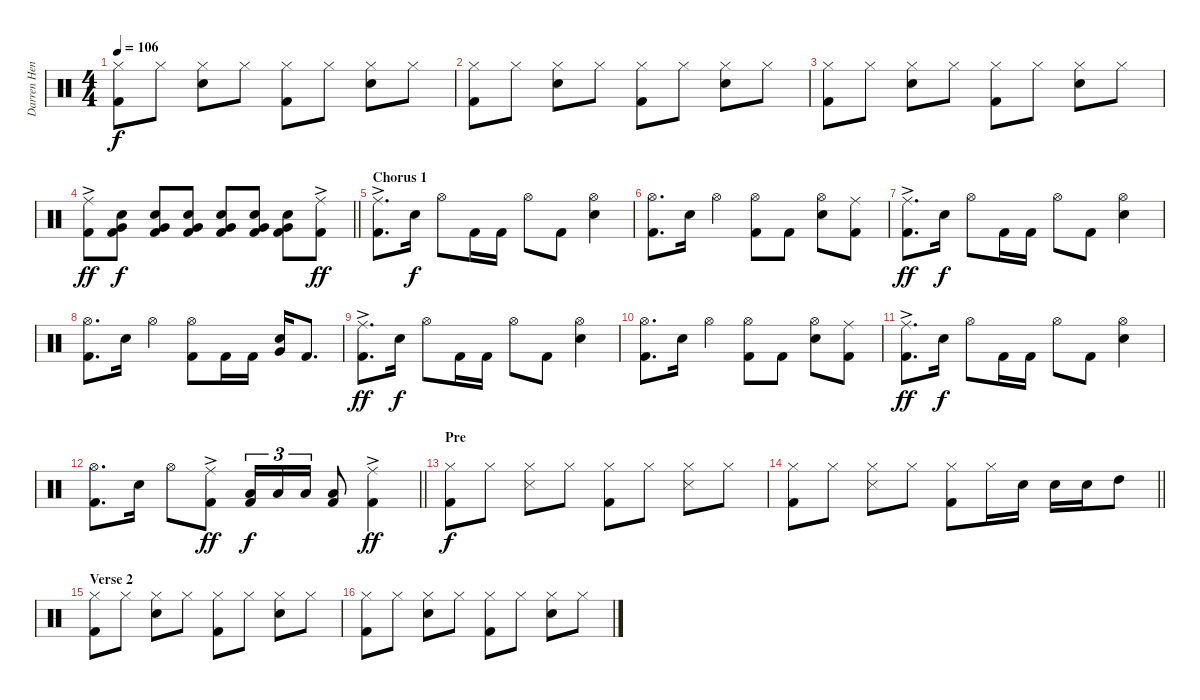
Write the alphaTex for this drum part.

\track ("Darren Henley [Drums]" "Darren Hen") {instrument percussion}
\staff {score}
\articulation defaults
\ts (4 4)
\tempo 106
\clef neutral
\ks c
("Hi-Hat (closed)" "Kick (hit) 2").8{dy f} "Hi-Hat (closed)".8 ("Hi-Hat (closed)" "Snare (hit) 2").8 "Hi-Hat (closed)".8 ("Hi-Hat (closed)" "Kick (hit) 2").8 "Hi-Hat (closed)".8 ("Hi-Hat (closed)" "Snare (hit) 2").8 "Hi-Hat (closed)".8 |
("Hi-Hat (closed)" "Kick (hit) 2").8 "Hi-Hat (closed)".8 ("Hi-Hat (closed)" "Snare (hit) 2").8 "Hi-Hat (closed)".8 ("Hi-Hat (closed)" "Kick (hit) 2").8 "Hi-Hat (closed)".8 ("Hi-Hat (closed)" "Snare (hit) 2").8 "Hi-Hat (closed)".8 |
("Hi-Hat (closed)" "Kick (hit) 2").8 "Hi-Hat (closed)".8 ("Hi-Hat (closed)" "Snare (hit) 2").8 "Hi-Hat (closed)".8 ("Hi-Hat (closed)" "Kick (hit) 2").8 "Hi-Hat (closed)".8 ("Hi-Hat (closed)" "Snare (hit) 2").8 "Hi-Hat (closed)".8 |
\barLineRight lightlight
("Ride (middle)"{ac} "Kick (hit) 2").8{dy ff} ("Snare (hit) 2" "Very Low Tom (hit)" "Kick (hit) 2").8{dy f} ("Snare (hit) 2" "Very Low Tom (hit)" "Kick (hit) 2").8 ("Snare (hit) 2" "Very Low Tom (hit)" "Kick (hit) 2").8 ("Snare (hit) 2" "Very Low Tom (hit)" "Kick (hit) 2").8 ("Snare (hit) 2" "Very Low Tom (hit)" "Kick (hit) 2").8 ("Snare (hit) 2" "Very Low Tom (hit)" "Kick (hit) 2").8 ("Ride (middle)"{ac} "Kick (hit) 2").8{dy ff} |
\section ("" "Chorus 1")
("Ride (middle)"{ac} "Kick (hit) 2").8{d} "Snare (hit) 2".16{dy f} "Hi-Hat (open)".8 "Kick (hit) 2".16 "Kick (hit) 2".16 "Hi-Hat (open)".8 "Kick (hit) 2".8 ("Hi-Hat (open)" "Snare (hit) 2").4 |
("Hi-Hat (open)" "Kick (hit) 2").8{d} "Snare (hit) 2".16 "Hi-Hat (open)".4 ("Hi-Hat (open)" "Kick (hit) 2").8 "Kick (hit) 2".8 ("Hi-Hat (open)" "Snare (hit) 2").8 ("Ride (middle)" "Kick (hit) 2").8 |
("Ride (middle)"{ac} "Kick (hit) 2").8{d dy ff} "Snare (hit) 2".16{dy f} "Hi-Hat (open)".8 "Kick (hit) 2".16 "Kick (hit) 2".16 "Hi-Hat (open)".8 "Kick (hit) 2".8 ("Hi-Hat (open)" "Snare (hit) 2").4 |
("Hi-Hat (open)" "Kick (hit) 2").8{d} "Snare (hit) 2".16 "Hi-Hat (open)".4 ("Hi-Hat (open)" "Kick (hit) 2").8 "Kick (hit) 2".16 "Kick (hit) 2".16 ("Snare (hit) 2" "Very Low Tom (hit)").16 "Kick (hit) 2".8{d} |
("Ride (middle)"{ac} "Kick (hit) 2").8{d dy ff} "Snare (hit) 2".16{dy f} "Hi-Hat (open)".8 "Kick (hit) 2".16 "Kick (hit) 2".16 "Hi-Hat (open)".8 "Kick (hit) 2".8 ("Hi-Hat (open)" "Snare (hit) 2").4 |
("Hi-Hat (open)" "Kick (hit) 2").8{d} "Snare (hit) 2".16 "Hi-Hat (open)".4 ("Hi-Hat (open)" "Kick (hit) 2").8 "Kick (hit) 2".8 ("Hi-Hat (open)" "Snare (hit) 2").8 ("Ride (middle)" "Kick (hit) 2").8 |
("Ride (middle)"{ac} "Kick (hit) 2").8{d dy ff} "Snare (hit) 2".16{dy f} "Hi-Hat (open)".8 "Kick (hit) 2".16 "Kick (hit) 2".16 "Hi-Hat (open)".8 "Kick (hit) 2".8 ("Hi-Hat (open)" "Snare (hit) 2").4 |
\barLineRight lightlight
("Hi-Hat (open)" "Kick (hit) 2").8{d} "Snare (hit) 2".16 "Hi-Hat (open)".8 ("Ride (middle)"{ac} "Kick (hit) 2").8{dy ff} ("Low Tom (hit)" "Kick (hit) 2").16{tu (3 2) dy f} "Low Tom (hit)".16{tu (3 2)} "Low Tom (hit)".16{tu (3 2)} ("Low Tom (hit)" "Kick (hit) 2").8 ("Ride (middle)"{ac} "Kick (hit) 2").4{dy ff} |
\section ("" "Pre")
("Hi-Hat (closed)" "Kick (hit) 2").8{dy f} "Hi-Hat (closed)".8 ("Hi-Hat (closed)" "Snare (side stick) 3").8 "Hi-Hat (closed)".8 ("Hi-Hat (closed)" "Kick (hit) 2").8 "Hi-Hat (closed)".8 ("Hi-Hat (closed)" "Snare (side stick) 3").8 "Hi-Hat (closed)".8 |
\barLineRight lightlight
("Hi-Hat (closed)" "Kick (hit) 2").8 "Hi-Hat (closed)".8 ("Hi-Hat (closed)" "Snare (side stick) 3").8 "Hi-Hat (closed)".8 ("Hi-Hat (closed)" "Kick (hit) 2").8 "Hi-Hat (closed)".16 "Snare (hit) 2".16 "Snare (hit) 2".16 "Snare (hit) 2".16 "High Tom (hit)".8 |
\section ("" "Verse 2")
("Hi-Hat (closed)" "Kick (hit) 2").8 "Hi-Hat (closed)".8 ("Hi-Hat (closed)" "Snare (hit) 2").8 "Hi-Hat (closed)".8 ("Hi-Hat (closed)" "Kick (hit) 2").8 "Hi-Hat (closed)".8 ("Hi-Hat (closed)" "Snare (hit) 2").8 "Hi-Hat (closed)".8 |
("Hi-Hat (closed)" "Kick (hit) 2").8 "Hi-Hat (closed)".8 ("Hi-Hat (closed)" "Snare (hit) 2").8 "Hi-Hat (closed)".8 ("Hi-Hat (closed)" "Kick (hit) 2").8 "Hi-Hat (closed)".8 ("Hi-Hat (closed)" "Snare (hit) 2").8 "Hi-Hat (closed)".8
